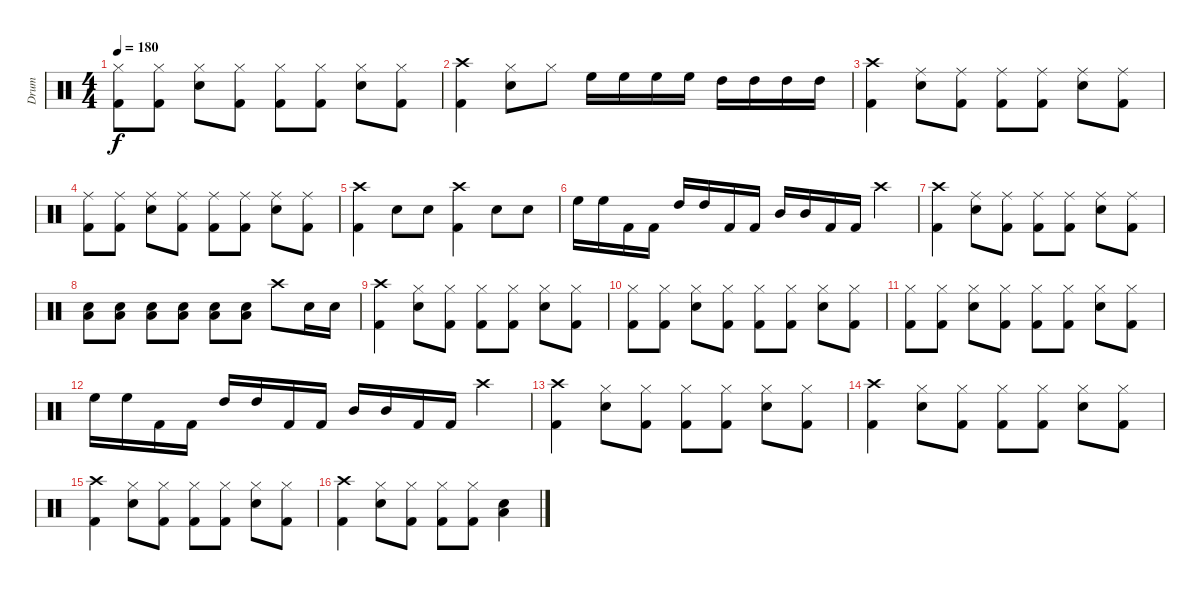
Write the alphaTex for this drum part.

\track ("Drum" "Drum") {instrument percussion}
\staff {score}
\articulation defaults
\ts (4 4)
\tempo 180
\clef neutral
\ks c
("Hi-Hat (closed)" "Kick (hit) 2").8{dy f} ("Hi-Hat (closed)" "Kick (hit) 2").8 ("Hi-Hat (closed)" "Snare (hit) 2").8 ("Hi-Hat (closed)" "Kick (hit) 2").8 ("Hi-Hat (closed)" "Kick (hit) 2").8 ("Hi-Hat (closed)" "Kick (hit) 2").8 ("Hi-Hat (closed)" "Snare (hit) 2").8 ("Hi-Hat (closed)" "Kick (hit) 2").8 |
("Crash high (hit)" "Kick (hit) 2").4 ("Hi-Hat (closed)" "Snare (hit) 2").8 "Hi-Hat (closed)".8 "High Floor Tom (hit)".16 "High Floor Tom (hit)".16 "High Floor Tom (hit)".16 "High Floor Tom (hit)".16 "High Tom (hit)".16 "High Tom (hit)".16 "High Tom (hit)".16 "High Tom (hit)".16 |
("Crash high (hit)" "Kick (hit) 2").4 ("Ride (middle)" "Snare (hit) 2").8 ("Ride (middle)" "Kick (hit) 2").8 ("Ride (middle)" "Kick (hit) 2").8 ("Ride (middle)" "Kick (hit) 2").8 ("Ride (middle)" "Snare (hit) 2").8 ("Ride (middle)" "Kick (hit) 2").8 |
("Ride (middle)" "Kick (hit) 2").8 ("Ride (middle)" "Kick (hit) 2").8 ("Ride (middle)" "Snare (hit) 2").8 ("Ride (middle)" "Kick (hit) 2").8 ("Ride (middle)" "Kick (hit) 2").8 ("Ride (middle)" "Kick (hit) 2").8 ("Ride (middle)" "Snare (hit) 2").8 ("Ride (middle)" "Kick (hit) 2").8 |
("Crash high (hit)" "Kick (hit) 2").4 "Snare (hit) 2".8 "Snare (hit) 2".8 ("Crash high (hit)" "Kick (hit) 2").4 "Snare (hit) 2".8 "Snare (hit) 2".8 |
"High Floor Tom (hit)".16 "High Floor Tom (hit)".16 "Kick (hit) 2".16 "Kick (hit) 2".16 "High Tom (hit)".16 "High Tom (hit)".16 "Kick (hit) 2".16 "Kick (hit) 2".16 "Mid Tom (hit)".16 "Mid Tom (hit)".16 "Kick (hit) 2".16 "Kick (hit) 2".16 "Crash high (hit)".4 |
("Crash high (hit)" "Kick (hit) 2").4 ("Ride (middle)" "Snare (hit) 2").8 ("Ride (middle)" "Kick (hit) 2").8 ("Ride (middle)" "Kick (hit) 2").8 ("Ride (middle)" "Kick (hit) 2").8 ("Ride (middle)" "Snare (hit) 2").8 ("Ride (middle)" "Kick (hit) 2").8 |
("Snare (hit) 2" "Low Floor Tom (hit)").8 ("Snare (hit) 2" "Low Floor Tom (hit)").8 ("Snare (hit) 2" "Low Floor Tom (hit)").8 ("Snare (hit) 2" "Low Floor Tom (hit)").8 ("Snare (hit) 2" "Low Floor Tom (hit)").8 ("Snare (hit) 2" "Low Floor Tom (hit)").8 "Crash high (hit)".8 "Snare (hit) 2".16 "Snare (hit) 2".16 |
("Crash high (hit)" "Kick (hit) 2").4 ("Hi-Hat (closed)" "Snare (hit) 2").8 ("Hi-Hat (closed)" "Kick (hit) 2").8 ("Hi-Hat (closed)" "Kick (hit) 2").8 ("Hi-Hat (closed)" "Kick (hit) 2").8 ("Hi-Hat (closed)" "Snare (hit) 2").8 ("Hi-Hat (closed)" "Kick (hit) 2").8 |
("Hi-Hat (closed)" "Kick (hit) 2").8 ("Hi-Hat (closed)" "Kick (hit) 2").8 ("Hi-Hat (closed)" "Snare (hit) 2").8 ("Hi-Hat (closed)" "Kick (hit) 2").8 ("Hi-Hat (closed)" "Kick (hit) 2").8 ("Hi-Hat (closed)" "Kick (hit) 2").8 ("Hi-Hat (closed)" "Snare (hit) 2").8 ("Hi-Hat (closed)" "Kick (hit) 2").8 |
("Hi-Hat (closed)" "Kick (hit) 2").8 ("Hi-Hat (closed)" "Kick (hit) 2").8 ("Hi-Hat (closed)" "Snare (hit) 2").8 ("Hi-Hat (closed)" "Kick (hit) 2").8 ("Hi-Hat (closed)" "Kick (hit) 2").8 ("Hi-Hat (closed)" "Kick (hit) 2").8 ("Hi-Hat (closed)" "Snare (hit) 2").8 ("Hi-Hat (closed)" "Kick (hit) 2").8 |
"High Floor Tom (hit)".16 "High Floor Tom (hit)".16 "Kick (hit) 2".16 "Kick (hit) 2".16 "High Tom (hit)".16 "High Tom (hit)".16 "Kick (hit) 2".16 "Kick (hit) 2".16 "Mid Tom (hit)".16 "Mid Tom (hit)".16 "Kick (hit) 2".16 "Kick (hit) 2".16 "Crash high (hit)".4 |
("Crash high (hit)" "Kick (hit) 2").4 ("Hi-Hat (closed)" "Snare (hit) 2").8 ("Hi-Hat (closed)" "Kick (hit) 2").8 ("Hi-Hat (closed)" "Kick (hit) 2").8 ("Hi-Hat (closed)" "Kick (hit) 2").8 ("Hi-Hat (closed)" "Snare (hit) 2").8 ("Hi-Hat (closed)" "Kick (hit) 2").8 |
("Crash high (hit)" "Kick (hit) 2").4 ("Hi-Hat (closed)" "Snare (hit) 2").8 ("Hi-Hat (closed)" "Kick (hit) 2").8 ("Hi-Hat (closed)" "Kick (hit) 2").8 ("Hi-Hat (closed)" "Kick (hit) 2").8 ("Hi-Hat (closed)" "Snare (hit) 2").8 ("Hi-Hat (closed)" "Kick (hit) 2").8 |
("Crash high (hit)" "Kick (hit) 2").4 ("Hi-Hat (closed)" "Snare (hit) 2").8 ("Hi-Hat (closed)" "Kick (hit) 2").8 ("Hi-Hat (closed)" "Kick (hit) 2").8 ("Hi-Hat (closed)" "Kick (hit) 2").8 ("Hi-Hat (closed)" "Snare (hit) 2").8 ("Hi-Hat (closed)" "Kick (hit) 2").8 |
("Crash high (hit)" "Kick (hit) 2").4 ("Hi-Hat (closed)" "Snare (hit) 2").8 ("Hi-Hat (closed)" "Kick (hit) 2").8 ("Hi-Hat (closed)" "Kick (hit) 2").8 ("Hi-Hat (closed)" "Kick (hit) 2").8 ("Snare (hit) 2" "Low Floor Tom (hit)").4
